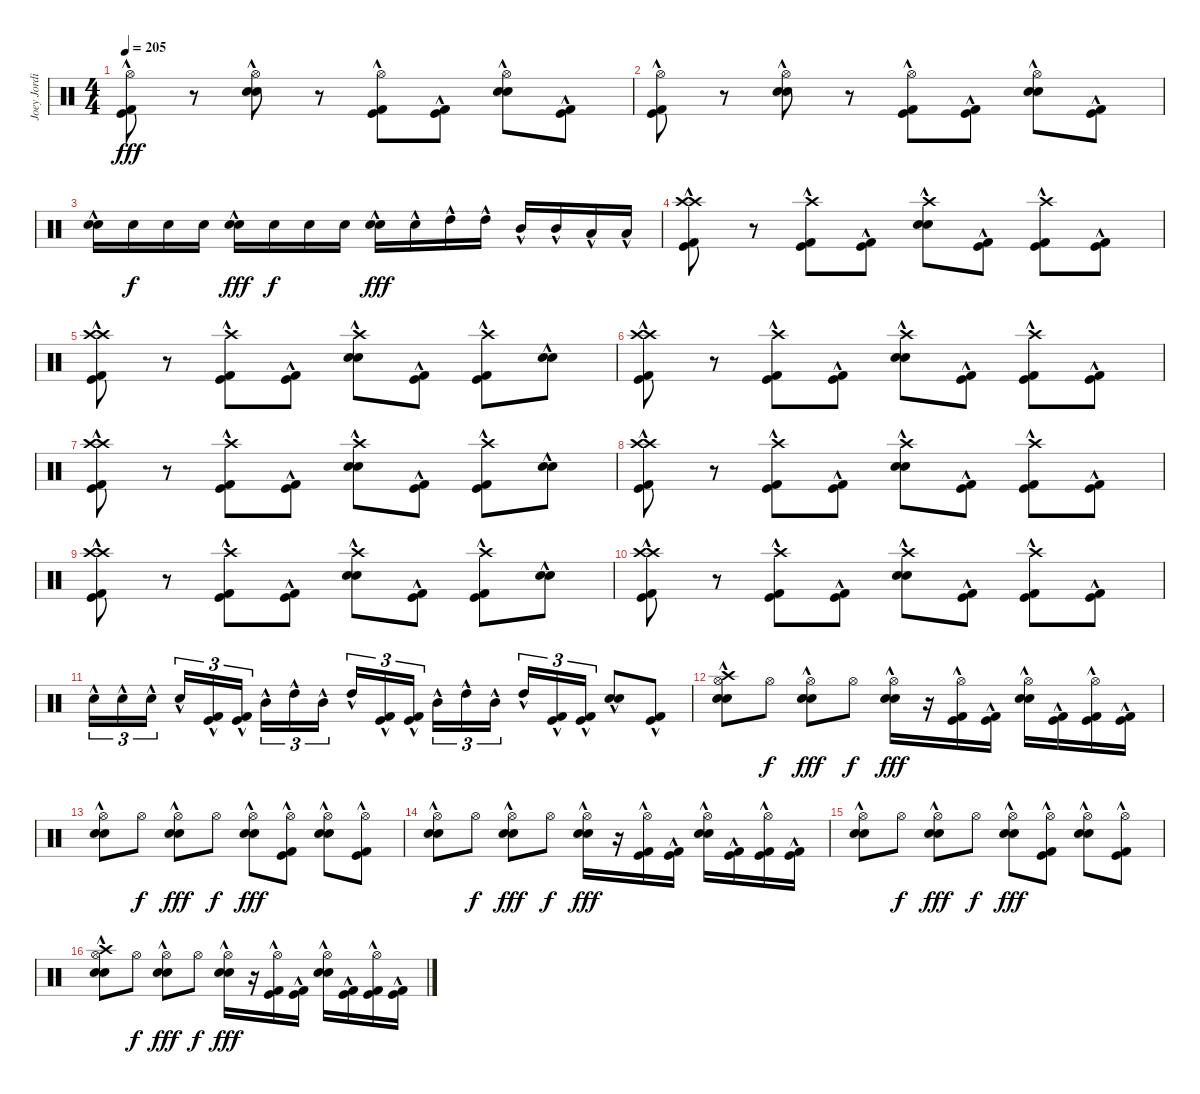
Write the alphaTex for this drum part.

\track ("Joey Jordison" "Joey Jordi") {instrument percussion}
\staff {score}
\articulation defaults
\ts (4 4)
\tempo 205
\clef neutral
\ks c
("Hi-Hat (open)"{hac} "Kick (hit) 2"{hac} "Kick (hit)"{hac}).8{dy fff} r.8 ("Hi-Hat (open)"{hac} "Electric Snare (hit)"{hac} "Electric Snare (hit)"{hac}).8 r.8 ("Hi-Hat (open)"{hac} "Kick (hit) 2"{hac} "Kick (hit)"{hac}).8 ("Kick (hit) 2"{hac} "Kick (hit)"{hac}).8 ("Hi-Hat (open)"{hac} "Electric Snare (hit)"{hac} "Electric Snare (hit)"{hac}).8 ("Kick (hit)"{hac} "Kick (hit) 2"{hac}).8 |
("Hi-Hat (open)"{hac} "Kick (hit) 2"{hac} "Kick (hit)"{hac}).8 r.8 ("Hi-Hat (open)"{hac} "Electric Snare (hit)"{hac} "Electric Snare (hit)"{hac}).8 r.8 ("Hi-Hat (open)"{hac} "Kick (hit) 2" "Kick (hit)").8 ("Kick (hit) 2"{hac} "Kick (hit)"{hac}).8 ("Hi-Hat (open)"{hac} "Electric Snare (hit)"{hac} "Electric Snare (hit)"{hac}).8 ("Kick (hit)"{hac} "Kick (hit) 2"{hac}).8 |
("Electric Snare (hit)" "Electric Snare (hit)"{hac}).16 "Electric Snare (hit)".16{dy f} "Electric Snare (hit)".16 "Electric Snare (hit)".16 ("Electric Snare (hit)" "Electric Snare (hit)"{hac}).16{dy fff} "Electric Snare (hit)".16{dy f} "Electric Snare (hit)".16 "Electric Snare (hit)".16 ("Electric Snare (hit)" "Electric Snare (hit)"{hac}).16{dy fff} "Electric Snare (hit)"{hac}.16 "High Tom (hit)"{hac}.16 "High Tom (hit)"{hac}.16 "Mid Tom (hit)"{hac}.16 "Mid Tom (hit)"{hac}.16 "Low Tom (hit)"{hac}.16 "Low Tom (hit)"{hac}.16 |
("Crash high (hit)"{hac} "Crash high (hit)"{hac} "Kick (hit)"{hac} "Kick (hit) 2"{hac}).8 r.8 ("Crash high (hit)"{hac} "Kick (hit)"{hac} "Kick (hit) 2"{hac}).8 ("Kick (hit)"{hac} "Kick (hit) 2"{hac}).8 ("Crash high (hit)"{hac} "Electric Snare (hit)"{hac} "Electric Snare (hit)"{hac}).8 ("Kick (hit)"{hac} "Kick (hit) 2"{hac}).8 ("Crash high (hit)"{hac} "Kick (hit)"{hac} "Kick (hit) 2"{hac}).8 ("Kick (hit)"{hac} "Kick (hit) 2"{hac}).8 |
("Crash high (hit)"{hac} "Crash high (hit)"{hac} "Kick (hit)"{hac} "Kick (hit) 2"{hac}).8 r.8 ("Crash high (hit)"{hac} "Kick (hit)"{hac} "Kick (hit) 2"{hac}).8 ("Kick (hit)"{hac} "Kick (hit) 2"{hac}).8 ("Crash high (hit)"{hac} "Electric Snare (hit)"{hac} "Electric Snare (hit)"{hac}).8 ("Kick (hit)"{hac} "Kick (hit) 2"{hac}).8 ("Crash high (hit)"{hac} "Kick (hit)"{hac} "Kick (hit) 2"{hac}).8 ("Electric Snare (hit)"{hac} "Electric Snare (hit)"{hac}).8 |
("Crash high (hit)"{hac} "Crash high (hit)"{hac} "Kick (hit)"{hac} "Kick (hit) 2"{hac}).8 r.8 ("Crash high (hit)"{hac} "Kick (hit)"{hac} "Kick (hit) 2"{hac}).8 ("Kick (hit)"{hac} "Kick (hit) 2"{hac}).8 ("Crash high (hit)"{hac} "Electric Snare (hit)"{hac} "Electric Snare (hit)"{hac}).8 ("Kick (hit)"{hac} "Kick (hit) 2"{hac}).8 ("Crash high (hit)"{hac} "Kick (hit)"{hac} "Kick (hit) 2"{hac}).8 ("Kick (hit)"{hac} "Kick (hit) 2"{hac}).8 |
("Crash high (hit)"{hac} "Crash high (hit)"{hac} "Kick (hit)"{hac} "Kick (hit) 2"{hac}).8 r.8 ("Crash high (hit)"{hac} "Kick (hit)"{hac} "Kick (hit) 2"{hac}).8 ("Kick (hit)"{hac} "Kick (hit) 2"{hac}).8 ("Crash high (hit)"{hac} "Electric Snare (hit)"{hac} "Electric Snare (hit)"{hac}).8 ("Kick (hit)"{hac} "Kick (hit) 2"{hac}).8 ("Crash high (hit)"{hac} "Kick (hit)"{hac} "Kick (hit) 2"{hac}).8 ("Electric Snare (hit)"{hac} "Electric Snare (hit)"{hac}).8 |
("Crash high (hit)"{hac} "Crash high (hit)"{hac} "Kick (hit)"{hac} "Kick (hit) 2"{hac}).8 r.8 ("Crash high (hit)"{hac} "Kick (hit)"{hac} "Kick (hit) 2"{hac}).8 ("Kick (hit)"{hac} "Kick (hit) 2"{hac}).8 ("Crash high (hit)"{hac} "Electric Snare (hit)"{hac} "Electric Snare (hit)"{hac}).8 ("Kick (hit)"{hac} "Kick (hit) 2"{hac}).8 ("Crash high (hit)"{hac} "Kick (hit)"{hac} "Kick (hit) 2"{hac}).8 ("Kick (hit)"{hac} "Kick (hit) 2"{hac}).8 |
("Crash high (hit)"{hac} "Crash high (hit)"{hac} "Kick (hit)"{hac} "Kick (hit) 2"{hac}).8 r.8 ("Crash high (hit)"{hac} "Kick (hit)"{hac} "Kick (hit) 2"{hac}).8 ("Kick (hit)"{hac} "Kick (hit) 2"{hac}).8 ("Crash high (hit)"{hac} "Electric Snare (hit)"{hac} "Electric Snare (hit)"{hac}).8 ("Kick (hit)"{hac} "Kick (hit) 2"{hac}).8 ("Crash high (hit)"{hac} "Kick (hit)"{hac} "Kick (hit) 2"{hac}).8 ("Electric Snare (hit)"{hac} "Electric Snare (hit)"{hac}).8 |
("Crash high (hit)"{hac} "Crash high (hit)"{hac} "Kick (hit)"{hac} "Kick (hit) 2"{hac}).8 r.8 ("Crash high (hit)"{hac} "Kick (hit)"{hac} "Kick (hit) 2"{hac}).8 ("Kick (hit)"{hac} "Kick (hit) 2"{hac}).8 ("Crash high (hit)"{hac} "Electric Snare (hit)"{hac} "Electric Snare (hit)"{hac}).8 ("Kick (hit)"{hac} "Kick (hit) 2"{hac}).8 ("Crash high (hit)"{hac} "Kick (hit)"{hac} "Kick (hit) 2"{hac}).8 ("Kick (hit)"{hac} "Kick (hit) 2"{hac}).8 |
"Electric Snare (hit)"{hac}.16{tu (3 2)} "Electric Snare (hit)"{hac}.16{tu (3 2)} "Electric Snare (hit)"{hac}.16{tu (3 2) beam splitsecondary} "Electric Snare (hit)"{hac}.16{tu (3 2)} ("Kick (hit)"{hac} "Kick (hit) 2"{hac}).16{tu (3 2)} ("Kick (hit)"{hac} "Kick (hit) 2"{hac}).16{tu (3 2)} "Mid Tom (hit)"{hac}.16{tu (3 2)} "High Tom (hit)"{hac}.16{tu (3 2)} "Mid Tom (hit)"{hac}.16{tu (3 2) beam splitsecondary} "High Tom (hit)"{hac}.16{tu (3 2)} ("Kick (hit)"{hac} "Kick (hit) 2"{hac}).16{tu (3 2)} ("Kick (hit)"{hac} "Kick (hit) 2"{hac}).16{tu (3 2)} "Mid Tom (hit)"{hac}.16{tu (3 2)} "High Tom (hit)"{hac}.16{tu (3 2)} "Mid Tom (hit)"{hac}.16{tu (3 2) beam splitsecondary} "High Tom (hit)"{hac}.16{tu (3 2)} ("Kick (hit)"{hac} "Kick (hit) 2"{hac}).16{tu (3 2)} ("Kick (hit)"{hac} "Kick (hit) 2"{hac}).16{tu (3 2)} ("Electric Snare (hit)"{hac} "Electric Snare (hit)"{hac}).8 ("Kick (hit) 2"{hac} "Kick (hit)"{hac}).8 |
("Crash high (hit)"{hac} "Hi-Hat (open)"{hac} "Electric Snare (hit)"{hac} "Electric Snare (hit)"{hac}).8 "Hi-Hat (open)".8{dy f} ("Hi-Hat (open)"{hac} "Electric Snare (hit)"{hac} "Electric Snare (hit)"{hac}).8{dy fff} "Hi-Hat (open)".8{dy f} ("Hi-Hat (open)"{hac} "Electric Snare (hit)"{hac} "Electric Snare (hit)"{hac}).16{dy fff} r.16 ("Hi-Hat (open)" "Kick (hit)"{hac} "Kick (hit) 2"{hac}).16 ("Kick (hit)"{hac} "Kick (hit) 2"{hac}).16 ("Hi-Hat (open)"{hac} "Electric Snare (hit)"{hac} "Electric Snare (hit)"{hac}).16 ("Kick (hit)"{hac} "Kick (hit) 2"{hac}).16 ("Hi-Hat (open)" "Kick (hit)"{hac} "Kick (hit) 2"{hac}).16 ("Kick (hit)"{hac} "Kick (hit) 2"{hac}).16 |
("Hi-Hat (open)"{hac} "Electric Snare (hit)"{hac} "Electric Snare (hit)"{hac}).8 "Hi-Hat (open)".8{dy f} ("Hi-Hat (open)"{hac} "Electric Snare (hit)"{hac} "Electric Snare (hit)"{hac}).8{dy fff} "Hi-Hat (open)".8{dy f} ("Hi-Hat (open)"{hac} "Electric Snare (hit)"{hac} "Electric Snare (hit)"{hac}).8{dy fff} ("Hi-Hat (open)" "Kick (hit)"{hac} "Kick (hit) 2"{hac}).8 ("Hi-Hat (open)"{hac} "Electric Snare (hit)"{hac} "Electric Snare (hit)"{hac}).8 ("Hi-Hat (open)" "Kick (hit)"{hac} "Kick (hit) 2"{hac}).8 |
("Hi-Hat (open)"{hac} "Electric Snare (hit)"{hac} "Electric Snare (hit)"{hac}).8 "Hi-Hat (open)".8{dy f} ("Hi-Hat (open)"{hac} "Electric Snare (hit)"{hac} "Electric Snare (hit)"{hac}).8{dy fff} "Hi-Hat (open)".8{dy f} ("Hi-Hat (open)"{hac} "Electric Snare (hit)"{hac} "Electric Snare (hit)"{hac}).16{dy fff} r.16 ("Hi-Hat (open)" "Kick (hit)"{hac} "Kick (hit) 2"{hac}).16 ("Kick (hit)"{hac} "Kick (hit) 2"{hac}).16 ("Hi-Hat (open)"{hac} "Electric Snare (hit)"{hac} "Electric Snare (hit)"{hac}).16 ("Kick (hit)"{hac} "Kick (hit) 2"{hac}).16 ("Hi-Hat (open)" "Kick (hit)"{hac} "Kick (hit) 2"{hac}).16 ("Kick (hit)"{hac} "Kick (hit) 2"{hac}).16 |
("Hi-Hat (open)"{hac} "Electric Snare (hit)"{hac} "Electric Snare (hit)"{hac}).8 "Hi-Hat (open)".8{dy f} ("Hi-Hat (open)"{hac} "Electric Snare (hit)"{hac} "Electric Snare (hit)"{hac}).8{dy fff} "Hi-Hat (open)".8{dy f} ("Hi-Hat (open)"{hac} "Electric Snare (hit)"{hac} "Electric Snare (hit)"{hac}).8{dy fff} ("Hi-Hat (open)" "Kick (hit)"{hac} "Kick (hit) 2"{hac}).8 ("Hi-Hat (open)"{hac} "Electric Snare (hit)"{hac} "Electric Snare (hit)"{hac}).8 ("Hi-Hat (open)" "Kick (hit)"{hac} "Kick (hit) 2"{hac}).8 |
("Crash high (hit)"{hac} "Hi-Hat (open)"{hac} "Electric Snare (hit)"{hac} "Electric Snare (hit)"{hac}).8 "Hi-Hat (open)".8{dy f} ("Hi-Hat (open)"{hac} "Electric Snare (hit)"{hac} "Electric Snare (hit)"{hac}).8{dy fff} "Hi-Hat (open)".8{dy f} ("Hi-Hat (open)"{hac} "Electric Snare (hit)"{hac} "Electric Snare (hit)"{hac}).16{dy fff} r.16 ("Hi-Hat (open)" "Kick (hit)"{hac} "Kick (hit) 2"{hac}).16 ("Kick (hit)"{hac} "Kick (hit) 2"{hac}).16 ("Hi-Hat (open)"{hac} "Electric Snare (hit)"{hac} "Electric Snare (hit)"{hac}).16 ("Kick (hit)"{hac} "Kick (hit) 2"{hac}).16 ("Hi-Hat (open)" "Kick (hit)"{hac} "Kick (hit) 2"{hac}).16 ("Kick (hit)"{hac} "Kick (hit) 2"{hac}).16
